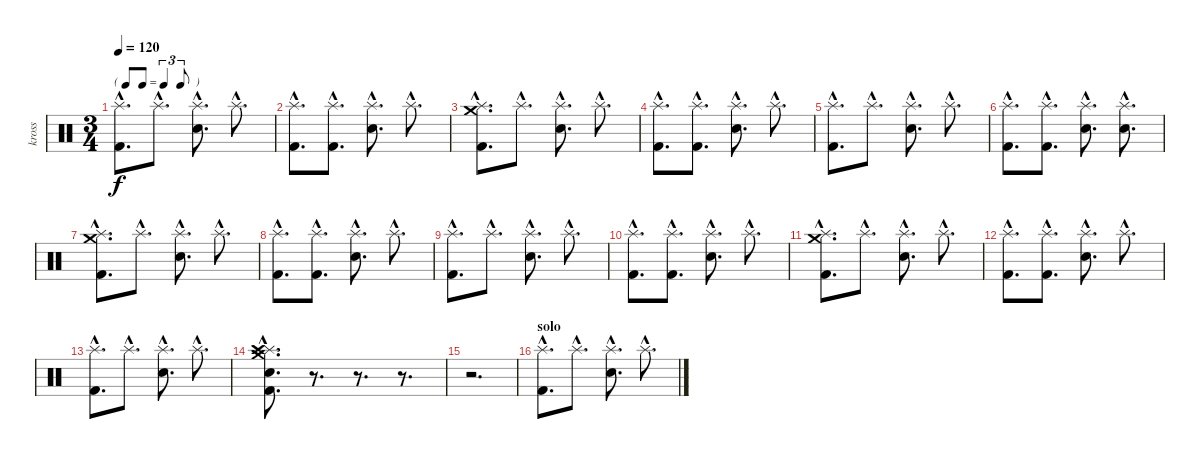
\track ("kross" "kross") {instrument percussion}
\staff {score}
\articulation defaults
\ts (3 4)
\tf triplet8th
\tempo 120
\clef neutral
\ks c
("Splash (hit)"{hac} "Kick (hit) 2"{hac}).8{d dy f} "Splash (hit)"{hac}.8{d} ("Electric Snare (hit)"{hac} "Splash (hit)"{hac}).8{d} "Splash (hit)"{hac}.8{d} |
("Splash (hit)"{hac} "Kick (hit) 2"{hac}).8{d} ("Splash (hit)"{hac} "Kick (hit) 2"{hac}).8{d} ("Electric Snare (hit)"{hac} "Splash (hit)"{hac}).8{d} "Splash (hit)"{hac}.8{d} |
("Splash (hit)"{hac} "Crash medium (hit)"{hac} "Kick (hit) 2"{hac}).8{d} "Splash (hit)"{hac}.8{d} ("Electric Snare (hit)"{hac} "Splash (hit)"{hac}).8{d} "Splash (hit)"{hac}.8{d} |
("Splash (hit)"{hac} "Kick (hit) 2"{hac}).8{d} ("Splash (hit)"{hac} "Kick (hit) 2"{hac}).8{d} ("Electric Snare (hit)"{hac} "Splash (hit)"{hac}).8{d} "Splash (hit)"{hac}.8{d} |
("Splash (hit)"{hac} "Kick (hit) 2"{hac}).8{d} "Splash (hit)"{hac}.8{d} ("Electric Snare (hit)"{hac} "Splash (hit)"{hac}).8{d} "Splash (hit)"{hac}.8{d} |
("Splash (hit)"{hac} "Kick (hit) 2"{hac}).8{d} ("Splash (hit)"{hac} "Kick (hit) 2"{hac}).8{d} ("Electric Snare (hit)"{hac} "Splash (hit)"{hac}).8{d} ("Electric Snare (hit)"{hac} "Splash (hit)"{hac}).8{d} |
("Splash (hit)"{hac} "Crash medium (hit)"{hac} "Kick (hit) 2"{hac}).8{d} "Splash (hit)"{hac}.8{d} ("Electric Snare (hit)"{hac} "Splash (hit)"{hac}).8{d} "Splash (hit)"{hac}.8{d} |
("Splash (hit)"{hac} "Kick (hit) 2"{hac}).8{d} ("Splash (hit)"{hac} "Kick (hit) 2"{hac}).8{d} ("Electric Snare (hit)"{hac} "Splash (hit)"{hac}).8{d} "Splash (hit)"{hac}.8{d} |
("Splash (hit)"{hac} "Kick (hit) 2"{hac}).8{d} "Splash (hit)"{hac}.8{d} ("Electric Snare (hit)"{hac} "Splash (hit)"{hac}).8{d} "Splash (hit)"{hac}.8{d} |
("Splash (hit)"{hac} "Kick (hit) 2"{hac}).8{d} ("Splash (hit)"{hac} "Kick (hit) 2"{hac}).8{d} ("Electric Snare (hit)"{hac} "Splash (hit)"{hac}).8{d} "Splash (hit)"{hac}.8{d} |
("Splash (hit)"{hac} "Crash medium (hit)"{hac} "Kick (hit) 2"{hac}).8{d} "Splash (hit)"{hac}.8{d} ("Electric Snare (hit)"{hac} "Splash (hit)"{hac}).8{d} "Splash (hit)"{hac}.8{d} |
("Splash (hit)"{hac} "Kick (hit) 2"{hac}).8{d} ("Splash (hit)"{hac} "Kick (hit) 2"{hac}).8{d} ("Electric Snare (hit)"{hac} "Splash (hit)"{hac}).8{d} "Splash (hit)"{hac}.8{d} |
("Splash (hit)"{hac} "Kick (hit) 2"{hac}).8{d} "Splash (hit)"{hac}.8{d} ("Electric Snare (hit)"{hac} "Splash (hit)"{hac}).8{d} "Splash (hit)"{hac}.8{d} |
("Electric Snare (hit)"{hac} "Splash (hit)"{hac} "Crash medium (hit)"{hac} "Crash high (hit)"{hac} "Kick (hit) 2"{hac}).8{d} r.8{d} r.8{d} r.8{d} |
r.2{d} |
\section ("" "solo")
("Splash (hit)"{hac} "Kick (hit) 2"{hac}).8{d} "Splash (hit)"{hac}.8{d} ("Electric Snare (hit)"{hac} "Splash (hit)"{hac}).8{d} "Splash (hit)"{hac}.8{d}
